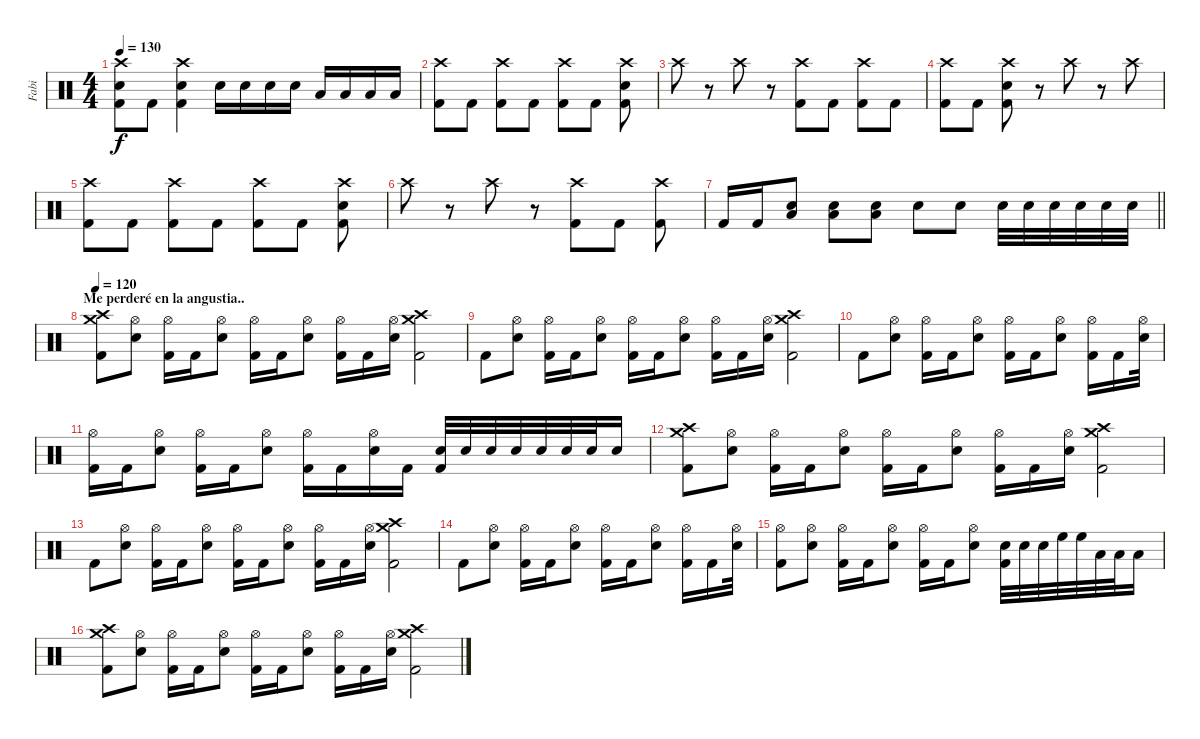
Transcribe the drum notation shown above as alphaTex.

\track ("Fabi" "Fabi") {instrument percussion}
\staff {score}
\articulation defaults
\ts (4 4)
\tempo 130
\clef neutral
\ks c
("Crash high (hit)" "Snare (hit)"{t} "Kick (hit) 2").8{dy f} "Kick (hit) 2".8 ("Crash high (hit)" "Snare (hit) 2" "Kick (hit) 2").4 "Snare (hit) 2".16 "Snare (hit) 2".16 "Snare (hit) 2".16 "Snare (hit) 2".16 "Low Tom (hit)".16 "Low Tom (hit)".16 "Low Tom (hit)".16 "Low Tom (hit)".16 |
("Crash high (hit)" "Kick (hit) 2").8 "Kick (hit) 2".8 ("Crash high (hit)" "Kick (hit) 2").8 "Kick (hit) 2".8 ("Crash high (hit)" "Kick (hit) 2").8 "Kick (hit) 2".8 ("Crash high (hit)" "Snare (hit) 2" "Kick (hit) 2").8 |
"Crash high (hit)".8 r.8 "Crash high (hit)".8 r.8 ("Crash high (hit)" "Kick (hit) 2").8 "Kick (hit) 2".8 ("Crash high (hit)" "Kick (hit) 2").8 "Kick (hit) 2".8 |
("Crash high (hit)" "Kick (hit) 2").8 "Kick (hit) 2".8 ("Crash high (hit)" "Snare (hit) 2" "Kick (hit) 2").8 r.8 "Crash high (hit)".8 r.8 "Crash high (hit)".8 |
("Crash high (hit)" "Kick (hit) 2").8 "Kick (hit) 2".8 ("Crash high (hit)" "Kick (hit) 2").8 "Kick (hit) 2".8 ("Crash high (hit)" "Kick (hit) 2").8 "Kick (hit) 2".8 ("Crash high (hit)" "Snare (hit) 2" "Kick (hit) 2").8 |
"Crash high (hit)".8 r.8 "Crash high (hit)".8 r.8 ("Crash high (hit)" "Kick (hit) 2").8 "Kick (hit) 2".8 ("Crash high (hit)" "Kick (hit) 2").8 |
\barLineRight lightlight "Kick (hit) 2".16 "Kick (hit) 2".16
("Snare (hit) 2" "Low Floor Tom (hit)").8 ("Snare (hit) 2" "Low Floor Tom (hit)").8 ("Snare (hit) 2" "Low Floor Tom (hit)").8 "Snare (hit) 2".8 "Snare (hit) 2".8 "Snare (hit) 2".32 "Snare (hit) 2".32 "Snare (hit) 2".32 "Snare (hit) 2".32 "Snare (hit) 2".32 "Snare (hit) 2".32 |
\section ("" "Me perderé en la angustia..")
\tempo 120
("Crash high (hit)" "Crash medium (hit)" "Kick (hit) 2").8 ("Hi-Hat (open)" "Snare (hit) 2").8 ("Hi-Hat (open)" "Kick (hit) 2").16 "Kick (hit) 2".16 ("Hi-Hat (open)" "Snare (hit) 2").8 ("Hi-Hat (open)" "Kick (hit) 2").16 "Kick (hit) 2".16 ("Hi-Hat (open)" "Snare (hit) 2").8 ("Hi-Hat (open)" "Kick (hit) 2").16 "Kick (hit) 2".16 ("Hi-Hat (open)" "Snare (hit) 2").16 ("Crash high (hit)" "Crash medium (hit)" "Kick (hit) 2").2 |
"Kick (hit) 2".8 ("Hi-Hat (open)" "Snare (hit) 2").8 ("Hi-Hat (open)" "Kick (hit) 2").16 "Kick (hit) 2".16 ("Hi-Hat (open)" "Snare (hit) 2").8 ("Hi-Hat (open)" "Kick (hit) 2").16 "Kick (hit) 2".16 ("Hi-Hat (open)" "Snare (hit) 2").8 ("Hi-Hat (open)" "Kick (hit) 2").16 "Kick (hit) 2".16 ("Hi-Hat (open)" "Snare (hit) 2").16 ("Crash high (hit)" "Crash medium (hit)" "Kick (hit) 2").2 |
"Kick (hit) 2".8 ("Hi-Hat (open)" "Snare (hit) 2").8 ("Hi-Hat (open)" "Kick (hit) 2").16 "Kick (hit) 2".16 ("Hi-Hat (open)" "Snare (hit) 2").8 ("Hi-Hat (open)" "Kick (hit) 2").16 "Kick (hit) 2".16 ("Hi-Hat (open)" "Snare (hit) 2").8 ("Hi-Hat (open)" "Kick (hit) 2").16 "Kick (hit) 2".16 ("Hi-Hat (open)" "Snare (hit) 2").32 |
("Hi-Hat (open)" "Kick (hit) 2").16 "Kick (hit) 2".16 ("Hi-Hat (open)" "Snare (hit) 2").8 ("Hi-Hat (open)" "Kick (hit) 2").16 "Kick (hit) 2".16 ("Hi-Hat (open)" "Snare (hit) 2").8 ("Hi-Hat (open)" "Kick (hit) 2").16 "Kick (hit) 2".16 ("Hi-Hat (open)" "Snare (hit) 2").16 "Kick (hit) 2".16 ("Snare (hit) 2" "Kick (hit) 2").32 "Snare (hit) 2".32 "Snare (hit) 2".32 "Snare (hit) 2".32 "Snare (hit) 2".32 "Snare (hit) 2".32 "Snare (hit) 2".32 "Snare (hit) 2".16 |
("Crash high (hit)" "Crash medium (hit)" "Kick (hit) 2").8 ("Hi-Hat (open)" "Snare (hit) 2").8 ("Hi-Hat (open)" "Kick (hit) 2").16 "Kick (hit) 2".16 ("Hi-Hat (open)" "Snare (hit) 2").8 ("Hi-Hat (open)" "Kick (hit) 2").16 "Kick (hit) 2".16 ("Hi-Hat (open)" "Snare (hit) 2").8 ("Hi-Hat (open)" "Kick (hit) 2").16 "Kick (hit) 2".16 ("Hi-Hat (open)" "Snare (hit) 2").16 ("Crash high (hit)" "Crash medium (hit)" "Kick (hit) 2").2 |
"Kick (hit) 2".8 ("Hi-Hat (open)" "Snare (hit) 2").8 ("Hi-Hat (open)" "Kick (hit) 2").16 "Kick (hit) 2".16 ("Hi-Hat (open)" "Snare (hit) 2").8 ("Hi-Hat (open)" "Kick (hit) 2").16 "Kick (hit) 2".16 ("Hi-Hat (open)" "Snare (hit) 2").8 ("Hi-Hat (open)" "Kick (hit) 2").16 "Kick (hit) 2".16 ("Hi-Hat (open)" "Snare (hit) 2").16 ("Crash high (hit)" "Crash medium (hit)" "Kick (hit) 2").2 |
"Kick (hit) 2".8 ("Hi-Hat (open)" "Snare (hit) 2").8 ("Hi-Hat (open)" "Kick (hit) 2").16 "Kick (hit) 2".16 ("Hi-Hat (open)" "Snare (hit) 2").8 ("Hi-Hat (open)" "Kick (hit) 2").16 "Kick (hit) 2".16 ("Hi-Hat (open)" "Snare (hit) 2").8 ("Hi-Hat (open)" "Kick (hit) 2").16 "Kick (hit) 2".16 ("Hi-Hat (open)" "Snare (hit) 2").32 |
("Hi-Hat (open)" "Kick (hit) 2").8 ("Hi-Hat (open)" "Snare (hit) 2").8 ("Hi-Hat (open)" "Kick (hit) 2").16 "Kick (hit) 2".16 ("Hi-Hat (open)" "Snare (hit) 2").8 ("Hi-Hat (open)" "Kick (hit) 2").16 "Kick (hit) 2".16 ("Hi-Hat (open)" "Snare (hit) 2").8 ("Snare (hit) 2" "Kick (hit) 2").32 "Snare (hit) 2".32 "Snare (hit) 2".32 "High Floor Tom (hit)".32 "High Floor Tom (hit)".32 "Low Tom (hit)".32 "Low Tom (hit)".32 "Low Tom (hit)".16 |
("Crash high (hit)" "Crash medium (hit)" "Kick (hit) 2").8 ("Hi-Hat (open)" "Snare (hit) 2").8 ("Hi-Hat (open)" "Kick (hit) 2").16 "Kick (hit) 2".16 ("Hi-Hat (open)" "Snare (hit) 2").8 ("Hi-Hat (open)" "Kick (hit) 2").16 "Kick (hit) 2".16 ("Hi-Hat (open)" "Snare (hit) 2").8 ("Hi-Hat (open)" "Kick (hit) 2").16 "Kick (hit) 2".16 ("Hi-Hat (open)" "Snare (hit) 2").16 ("Crash high (hit)" "Crash medium (hit)" "Kick (hit) 2").2
